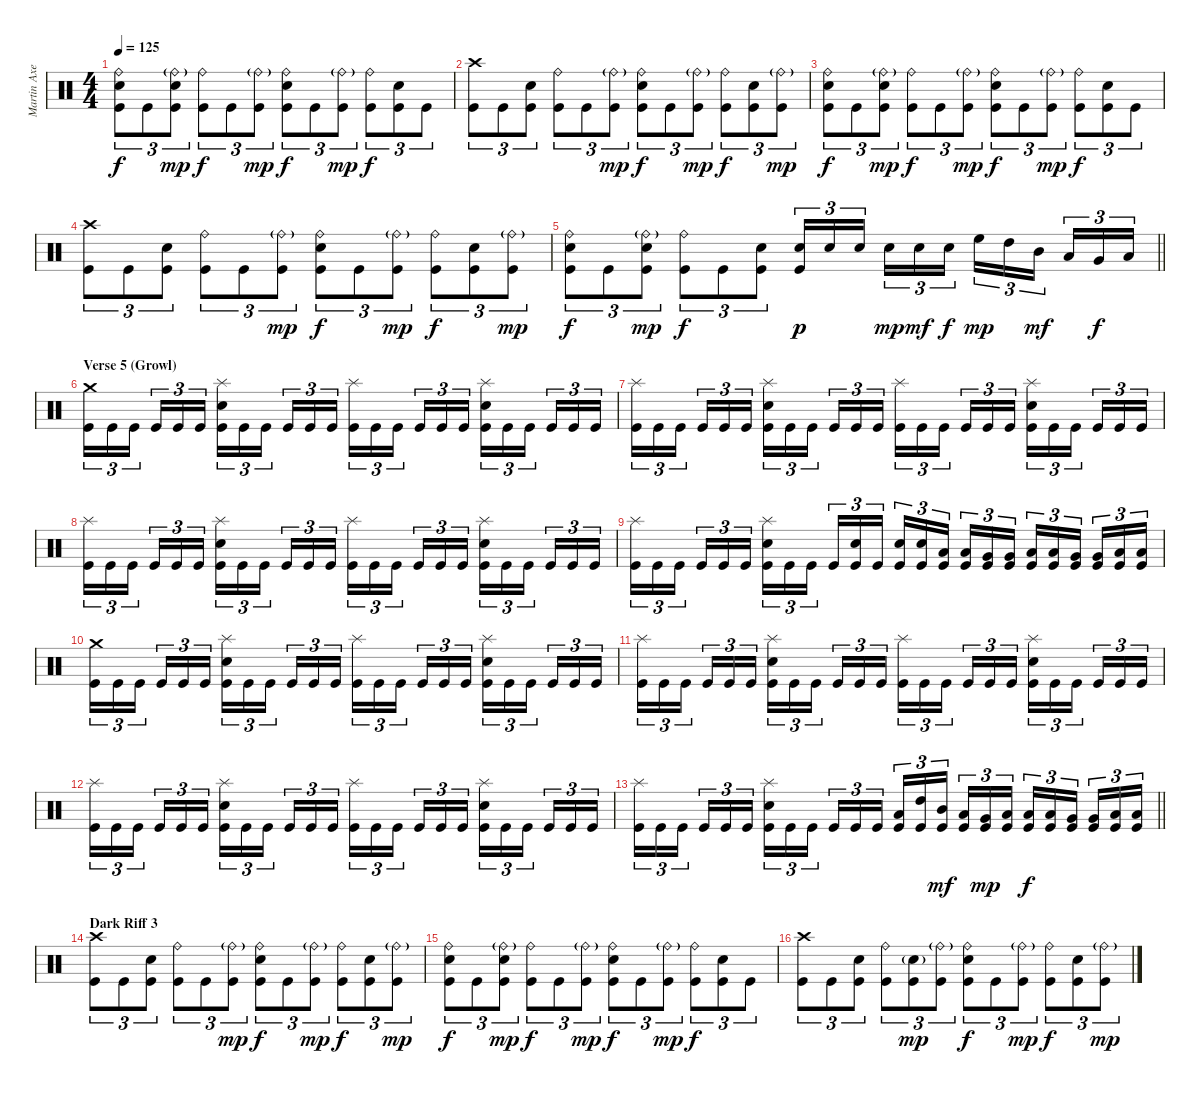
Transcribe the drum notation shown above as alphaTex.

\track ("Martin Axenrot" "Martin Axe") {instrument percussion}
\staff {score}
\articulation defaults
\ts (4 4)
\tempo 125
\clef neutral
\ks c
("Ride (bell)" "Snare (hit) 2" "Kick (hit)").8{tu (3 2) dy f} "Kick (hit)".8{tu (3 2)} ("Ride (bell)"{g} "Snare (hit) 2" "Kick (hit)").8{tu (3 2) dy mp} ("Ride (bell)" "Kick (hit)").8{tu (3 2) dy f} "Kick (hit)".8{tu (3 2)} ("Ride (bell)"{g} "Kick (hit)").8{tu (3 2) dy mp} ("Ride (bell)" "Snare (hit) 2" "Kick (hit)").8{tu (3 2) dy f} "Kick (hit)".8{tu (3 2)} ("Ride (bell)"{g} "Kick (hit)").8{tu (3 2) dy mp} ("Ride (bell)" "Kick (hit)").8{tu (3 2) dy f} ("Snare (hit) 2" "Kick (hit)").8{tu (3 2)} "Kick (hit)".8{tu (3 2)} |
("Crash high (hit)" "Kick (hit)").8{tu (3 2)} "Kick (hit)".8{tu (3 2)} ("Snare (hit) 2" "Kick (hit)").8{tu (3 2)} ("Ride (bell)" "Kick (hit)").8{tu (3 2)} "Kick (hit)".8{tu (3 2)} ("Ride (bell)"{g} "Kick (hit)").8{tu (3 2) dy mp} ("Ride (bell)" "Snare (hit) 2" "Kick (hit)").8{tu (3 2) dy f} "Kick (hit)".8{tu (3 2)} ("Ride (bell)"{g} "Kick (hit)").8{tu (3 2) dy mp} ("Ride (bell)" "Kick (hit)").8{tu (3 2) dy f} ("Snare (hit) 2" "Kick (hit)").8{tu (3 2)} ("Ride (bell)"{g} "Kick (hit)").8{tu (3 2) dy mp} |
("Ride (bell)" "Snare (hit) 2" "Kick (hit)").8{tu (3 2) dy f} "Kick (hit)".8{tu (3 2)} ("Ride (bell)"{g} "Snare (hit) 2" "Kick (hit)").8{tu (3 2) dy mp} ("Ride (bell)" "Kick (hit)").8{tu (3 2) dy f} "Kick (hit)".8{tu (3 2)} ("Ride (bell)"{g} "Kick (hit)").8{tu (3 2) dy mp} ("Ride (bell)" "Snare (hit) 2" "Kick (hit)").8{tu (3 2) dy f} "Kick (hit)".8{tu (3 2)} ("Ride (bell)"{g} "Kick (hit)").8{tu (3 2) dy mp} ("Ride (bell)" "Kick (hit)").8{tu (3 2) dy f} ("Snare (hit) 2" "Kick (hit)").8{tu (3 2)} "Kick (hit)".8{tu (3 2)} |
("Crash high (hit)" "Kick (hit)").8{tu (3 2)} "Kick (hit)".8{tu (3 2)} ("Snare (hit) 2" "Kick (hit)").8{tu (3 2)} ("Ride (bell)" "Kick (hit)").8{tu (3 2)} "Kick (hit)".8{tu (3 2)} ("Ride (bell)"{g} "Kick (hit)").8{tu (3 2) dy mp} ("Ride (bell)" "Snare (hit) 2" "Kick (hit)").8{tu (3 2) dy f} "Kick (hit)".8{tu (3 2)} ("Ride (bell)"{g} "Kick (hit)").8{tu (3 2) dy mp} ("Ride (bell)" "Kick (hit)").8{tu (3 2) dy f} ("Snare (hit) 2" "Kick (hit)").8{tu (3 2)} ("Ride (bell)"{g} "Kick (hit)").8{tu (3 2) dy mp} |
\barLineRight lightlight
("Ride (bell)" "Snare (hit) 2" "Kick (hit)").8{tu (3 2) dy f} "Kick (hit)".8{tu (3 2)} ("Ride (bell)"{g} "Snare (hit) 2" "Kick (hit)").8{tu (3 2) dy mp} ("Ride (bell)" "Kick (hit)").8{tu (3 2) dy f} "Kick (hit)".8{tu (3 2)} ("Snare (hit) 2" "Kick (hit)").8{tu (3 2)} ("Snare (hit) 2" "Kick (hit)").16{tu (3 2) dy p} "Snare (hit) 2".16{tu (3 2)} "Snare (hit) 2".16{tu (3 2) beam splitsecondary} "Snare (hit) 2".16{tu (3 2) dy mp} "Snare (hit) 2".16{tu (3 2) dy mf} "Snare (hit) 2".16{tu (3 2) dy f} "High Floor Tom (hit)".16{tu (3 2) dy mp} "High Tom (hit)".16{tu (3 2)} "Mid Tom (hit)".16{tu (3 2) dy mf beam splitsecondary} "Low Tom (hit)".16{tu (3 2)} "Very Low Tom (hit)".16{tu (3 2) dy f} "Low Floor Tom (hit)".16{tu (3 2)} |
\section ("" "Verse 5 (Growl)")
("Crash medium (hit)" "Kick (hit)").16{tu (3 2)} "Kick (hit)".16{tu (3 2)} "Kick (hit)".16{tu (3 2) beam splitsecondary} "Kick (hit)".16{tu (3 2)} "Kick (hit)".16{tu (3 2)} "Kick (hit)".16{tu (3 2)} ("Splash (hit)" "Snare (hit) 2" "Kick (hit)").16{tu (3 2)} "Kick (hit)".16{tu (3 2)} "Kick (hit)".16{tu (3 2) beam splitsecondary} "Kick (hit)".16{tu (3 2)} "Kick (hit)".16{tu (3 2)} "Kick (hit)".16{tu (3 2)} ("Splash (hit)" "Kick (hit)").16{tu (3 2)} "Kick (hit)".16{tu (3 2)} "Kick (hit)".16{tu (3 2) beam splitsecondary} "Kick (hit)".16{tu (3 2)} "Kick (hit)".16{tu (3 2)} "Kick (hit)".16{tu (3 2)} ("Splash (hit)" "Snare (hit) 2" "Kick (hit)").16{tu (3 2)} "Kick (hit)".16{tu (3 2)} "Kick (hit)".16{tu (3 2) beam splitsecondary} "Kick (hit)".16{tu (3 2)} "Kick (hit)".16{tu (3 2)} "Kick (hit)".16{tu (3 2)} |
("Splash (hit)" "Kick (hit)").16{tu (3 2)} "Kick (hit)".16{tu (3 2)} "Kick (hit)".16{tu (3 2) beam splitsecondary} "Kick (hit)".16{tu (3 2)} "Kick (hit)".16{tu (3 2)} "Kick (hit)".16{tu (3 2)} ("Splash (hit)" "Snare (hit) 2" "Kick (hit)").16{tu (3 2)} "Kick (hit)".16{tu (3 2)} "Kick (hit)".16{tu (3 2) beam splitsecondary} "Kick (hit)".16{tu (3 2)} "Kick (hit)".16{tu (3 2)} "Kick (hit)".16{tu (3 2)} ("Splash (hit)" "Kick (hit)").16{tu (3 2)} "Kick (hit)".16{tu (3 2)} "Kick (hit)".16{tu (3 2) beam splitsecondary} "Kick (hit)".16{tu (3 2)} "Kick (hit)".16{tu (3 2)} "Kick (hit)".16{tu (3 2)} ("Splash (hit)" "Snare (hit) 2" "Kick (hit)").16{tu (3 2)} "Kick (hit)".16{tu (3 2)} "Kick (hit)".16{tu (3 2) beam splitsecondary} "Kick (hit)".16{tu (3 2)} "Kick (hit)".16{tu (3 2)} "Kick (hit)".16{tu (3 2)} |
("Splash (hit)" "Kick (hit)").16{tu (3 2)} "Kick (hit)".16{tu (3 2)} "Kick (hit)".16{tu (3 2) beam splitsecondary} "Kick (hit)".16{tu (3 2)} "Kick (hit)".16{tu (3 2)} "Kick (hit)".16{tu (3 2)} ("Splash (hit)" "Snare (hit) 2" "Kick (hit)").16{tu (3 2)} "Kick (hit)".16{tu (3 2)} "Kick (hit)".16{tu (3 2) beam splitsecondary} "Kick (hit)".16{tu (3 2)} "Kick (hit)".16{tu (3 2)} "Kick (hit)".16{tu (3 2)} ("Splash (hit)" "Kick (hit)").16{tu (3 2)} "Kick (hit)".16{tu (3 2)} "Kick (hit)".16{tu (3 2) beam splitsecondary} "Kick (hit)".16{tu (3 2)} "Kick (hit)".16{tu (3 2)} "Kick (hit)".16{tu (3 2)} ("Splash (hit)" "Snare (hit) 2" "Kick (hit)").16{tu (3 2)} "Kick (hit)".16{tu (3 2)} "Kick (hit)".16{tu (3 2) beam splitsecondary} "Kick (hit)".16{tu (3 2)} "Kick (hit)".16{tu (3 2)} "Kick (hit)".16{tu (3 2)} |
("Splash (hit)" "Kick (hit)").16{tu (3 2)} "Kick (hit)".16{tu (3 2)} "Kick (hit)".16{tu (3 2) beam splitsecondary} "Kick (hit)".16{tu (3 2)} "Kick (hit)".16{tu (3 2)} "Kick (hit)".16{tu (3 2)} ("Splash (hit)" "Snare (hit) 2" "Kick (hit)").16{tu (3 2)} "Kick (hit)".16{tu (3 2)} "Kick (hit)".16{tu (3 2) beam splitsecondary} "Kick (hit)".16{tu (3 2)} ("Snare (hit) 2" "Kick (hit)").16{tu (3 2)} "Kick (hit)".16{tu (3 2)} ("Snare (hit) 2" "Kick (hit)").16{tu (3 2)} ("Snare (hit) 2" "Kick (hit)").16{tu (3 2)} ("Low Tom (hit)" "Kick (hit)").16{tu (3 2) beam splitsecondary} ("Low Tom (hit)" "Kick (hit)").16{tu (3 2)} ("Very Low Tom (hit)" "Kick (hit)").16{tu (3 2)} ("Very Low Tom (hit)" "Kick (hit)").16{tu (3 2)} ("Low Floor Tom (hit)" "Kick (hit)").16{tu (3 2)} ("Low Floor Tom (hit)" "Kick (hit)").16{tu (3 2)} ("Very Low Tom (hit)" "Kick (hit)").16{tu (3 2) beam splitsecondary} ("Very Low Tom (hit)" "Kick (hit)").16{tu (3 2)} ("Low Tom (hit)" "Kick (hit)").16{tu (3 2)} ("Low Tom (hit)" "Kick (hit)").16{tu (3 2)} |
("Crash medium (hit)" "Kick (hit)").16{tu (3 2)} "Kick (hit)".16{tu (3 2)} "Kick (hit)".16{tu (3 2) beam splitsecondary} "Kick (hit)".16{tu (3 2)} "Kick (hit)".16{tu (3 2)} "Kick (hit)".16{tu (3 2)} ("Splash (hit)" "Snare (hit) 2" "Kick (hit)").16{tu (3 2)} "Kick (hit)".16{tu (3 2)} "Kick (hit)".16{tu (3 2) beam splitsecondary} "Kick (hit)".16{tu (3 2)} "Kick (hit)".16{tu (3 2)} "Kick (hit)".16{tu (3 2)} ("Splash (hit)" "Kick (hit)").16{tu (3 2)} "Kick (hit)".16{tu (3 2)} "Kick (hit)".16{tu (3 2) beam splitsecondary} "Kick (hit)".16{tu (3 2)} "Kick (hit)".16{tu (3 2)} "Kick (hit)".16{tu (3 2)} ("Splash (hit)" "Snare (hit) 2" "Kick (hit)").16{tu (3 2)} "Kick (hit)".16{tu (3 2)} "Kick (hit)".16{tu (3 2) beam splitsecondary} "Kick (hit)".16{tu (3 2)} "Kick (hit)".16{tu (3 2)} "Kick (hit)".16{tu (3 2)} |
("Splash (hit)" "Kick (hit)").16{tu (3 2)} "Kick (hit)".16{tu (3 2)} "Kick (hit)".16{tu (3 2) beam splitsecondary} "Kick (hit)".16{tu (3 2)} "Kick (hit)".16{tu (3 2)} "Kick (hit)".16{tu (3 2)} ("Splash (hit)" "Snare (hit) 2" "Kick (hit)").16{tu (3 2)} "Kick (hit)".16{tu (3 2)} "Kick (hit)".16{tu (3 2) beam splitsecondary} "Kick (hit)".16{tu (3 2)} "Kick (hit)".16{tu (3 2)} "Kick (hit)".16{tu (3 2)} ("Splash (hit)" "Kick (hit)").16{tu (3 2)} "Kick (hit)".16{tu (3 2)} "Kick (hit)".16{tu (3 2) beam splitsecondary} "Kick (hit)".16{tu (3 2)} "Kick (hit)".16{tu (3 2)} "Kick (hit)".16{tu (3 2)} ("Splash (hit)" "Snare (hit) 2" "Kick (hit)").16{tu (3 2)} "Kick (hit)".16{tu (3 2)} "Kick (hit)".16{tu (3 2) beam splitsecondary} "Kick (hit)".16{tu (3 2)} "Kick (hit)".16{tu (3 2)} "Kick (hit)".16{tu (3 2)} |
("Splash (hit)" "Kick (hit)").16{tu (3 2)} "Kick (hit)".16{tu (3 2)} "Kick (hit)".16{tu (3 2) beam splitsecondary} "Kick (hit)".16{tu (3 2)} "Kick (hit)".16{tu (3 2)} "Kick (hit)".16{tu (3 2)} ("Splash (hit)" "Snare (hit) 2" "Kick (hit)").16{tu (3 2)} "Kick (hit)".16{tu (3 2)} "Kick (hit)".16{tu (3 2) beam splitsecondary} "Kick (hit)".16{tu (3 2)} "Kick (hit)".16{tu (3 2)} "Kick (hit)".16{tu (3 2)} ("Splash (hit)" "Kick (hit)").16{tu (3 2)} "Kick (hit)".16{tu (3 2)} "Kick (hit)".16{tu (3 2) beam splitsecondary} "Kick (hit)".16{tu (3 2)} "Kick (hit)".16{tu (3 2)} "Kick (hit)".16{tu (3 2)} ("Splash (hit)" "Snare (hit) 2" "Kick (hit)").16{tu (3 2)} "Kick (hit)".16{tu (3 2)} "Kick (hit)".16{tu (3 2) beam splitsecondary} "Kick (hit)".16{tu (3 2)} "Kick (hit)".16{tu (3 2)} "Kick (hit)".16{tu (3 2)} |
\barLineRight lightlight
("Splash (hit)" "Kick (hit)").16{tu (3 2)} "Kick (hit)".16{tu (3 2)} "Kick (hit)".16{tu (3 2) beam splitsecondary} "Kick (hit)".16{tu (3 2)} "Kick (hit)".16{tu (3 2)} "Kick (hit)".16{tu (3 2)} ("Splash (hit)" "Snare (hit) 2" "Kick (hit)").16{tu (3 2)} "Kick (hit)".16{tu (3 2)} "Kick (hit)".16{tu (3 2) beam splitsecondary} "Kick (hit)".16{tu (3 2)} "Kick (hit)".16{tu (3 2)} "Kick (hit)".16{tu (3 2)} ("Low Tom (hit)" "Kick (hit)").16{tu (3 2)} ("High Tom (hit)" "Kick (hit)").16{tu (3 2)} ("Mid Tom (hit)" "Kick (hit)").16{tu (3 2) dy mf beam splitsecondary} ("Low Tom (hit)" "Kick (hit)").16{tu (3 2)} ("Very Low Tom (hit)" "Kick (hit)").16{tu (3 2) dy mp} ("Low Floor Tom (hit)" "Kick (hit)").16{tu (3 2)} ("Low Tom (hit)" "Kick (hit)").16{tu (3 2) dy f} ("Low Tom (hit)" "Kick (hit)").16{tu (3 2)} ("Very Low Tom (hit)" "Kick (hit)").16{tu (3 2) beam splitsecondary} ("Very Low Tom (hit)" "Kick (hit)").16{tu (3 2)} ("Low Floor Tom (hit)" "Kick (hit)").16{tu (3 2)} ("Low Floor Tom (hit)" "Kick (hit)").16{tu (3 2)} |
\section ("" "Dark Riff 3")
("Crash high (hit)" "Kick (hit)").8{tu (3 2)} "Kick (hit)".8{tu (3 2)} ("Snare (hit) 2" "Kick (hit)").8{tu (3 2)} ("Ride (bell)" "Kick (hit)").8{tu (3 2)} "Kick (hit)".8{tu (3 2)} ("Ride (bell)"{g} "Kick (hit)").8{tu (3 2) dy mp} ("Ride (bell)" "Snare (hit) 2" "Kick (hit)").8{tu (3 2) dy f} "Kick (hit)".8{tu (3 2)} ("Ride (bell)"{g} "Kick (hit)").8{tu (3 2) dy mp} ("Ride (bell)" "Kick (hit)").8{tu (3 2) dy f} ("Snare (hit) 2" "Kick (hit)").8{tu (3 2)} ("Ride (bell)"{g} "Kick (hit)").8{tu (3 2) dy mp} |
("Ride (bell)" "Snare (hit) 2" "Kick (hit)").8{tu (3 2) dy f} "Kick (hit)".8{tu (3 2)} ("Ride (bell)"{g} "Snare (hit) 2" "Kick (hit)").8{tu (3 2) dy mp} ("Ride (bell)" "Kick (hit)").8{tu (3 2) dy f} "Kick (hit)".8{tu (3 2)} ("Ride (bell)"{g} "Kick (hit)").8{tu (3 2) dy mp} ("Ride (bell)" "Snare (hit) 2" "Kick (hit)").8{tu (3 2) dy f} "Kick (hit)".8{tu (3 2)} ("Ride (bell)"{g} "Kick (hit)").8{tu (3 2) dy mp} ("Ride (bell)" "Kick (hit)").8{tu (3 2) dy f} ("Snare (hit) 2" "Kick (hit)").8{tu (3 2)} "Kick (hit)".8{tu (3 2)} |
("Crash high (hit)" "Kick (hit)").8{tu (3 2)} "Kick (hit)".8{tu (3 2)} ("Snare (hit) 2" "Kick (hit)").8{tu (3 2)} ("Ride (bell)" "Kick (hit)").8{tu (3 2)} ("Snare (hit) 2"{g} "Kick (hit)").8{tu (3 2) dy mp} ("Ride (bell)"{g} "Kick (hit)").8{tu (3 2)} ("Ride (bell)" "Snare (hit) 2" "Kick (hit)").8{tu (3 2) dy f} "Kick (hit)".8{tu (3 2)} ("Ride (bell)"{g} "Kick (hit)").8{tu (3 2) dy mp} ("Ride (bell)" "Kick (hit)").8{tu (3 2) dy f} ("Snare (hit) 2" "Kick (hit)").8{tu (3 2)} ("Ride (bell)"{g} "Kick (hit)").8{tu (3 2) dy mp}
